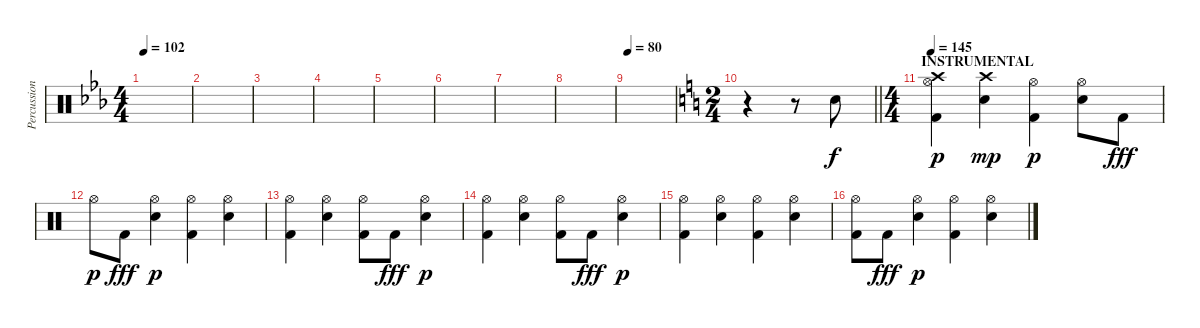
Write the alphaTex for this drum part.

\track ("Percussions" "Percussion") {instrument percussion}
\staff {score}
\articulation defaults
\ts (4 4)
\tempo 102
\clef neutral
\ks eb
|
|
|
|
|
|
|
|
\tempo 80
|
\ts (2 4)
\barLineRight lightlight
\ks c
r.4 r.8 "Snare (hit) 2".8 |
\ts (4 4)
\section ("" "INSTRUMENTAL")
\tempo 145
("Kick (hit) 2" "Crash high (hit)" "Hi-Hat (open)").4{dy p} ("Snare (hit) 2" "Crash high (hit)").4{dy mp} ("Kick (hit) 2" "Hi-Hat (open)").4{dy p} ("Snare (hit) 2" "Hi-Hat (open)").8 "Kick (hit) 2".8{dy fff} |
"Hi-Hat (open)".8{dy p} "Kick (hit) 2".8{dy fff} ("Snare (hit) 2" "Hi-Hat (open)").4{dy p} ("Kick (hit) 2" "Hi-Hat (open)").4 ("Snare (hit) 2" "Hi-Hat (open)").4 |
("Kick (hit) 2" "Hi-Hat (open)").4 ("Snare (hit) 2" "Hi-Hat (open)").4 ("Kick (hit) 2" "Hi-Hat (open)").8 "Kick (hit) 2".8{dy fff} ("Snare (hit) 2" "Hi-Hat (open)").4{dy p} |
("Kick (hit) 2" "Hi-Hat (open)").4 ("Snare (hit) 2" "Hi-Hat (open)").4 ("Kick (hit) 2" "Hi-Hat (open)").8 "Kick (hit) 2".8{dy fff} ("Snare (hit) 2" "Hi-Hat (open)").4{dy p} |
("Kick (hit) 2" "Hi-Hat (open)").4 ("Snare (hit) 2" "Hi-Hat (open)").4 ("Kick (hit) 2" "Hi-Hat (open)").4 ("Snare (hit) 2" "Hi-Hat (open)").4 |
("Kick (hit) 2" "Hi-Hat (open)").8 "Kick (hit) 2".8{dy fff} ("Snare (hit) 2" "Hi-Hat (open)").4{dy p} ("Kick (hit) 2" "Hi-Hat (open)").4 ("Snare (hit) 2" "Hi-Hat (open)").4
